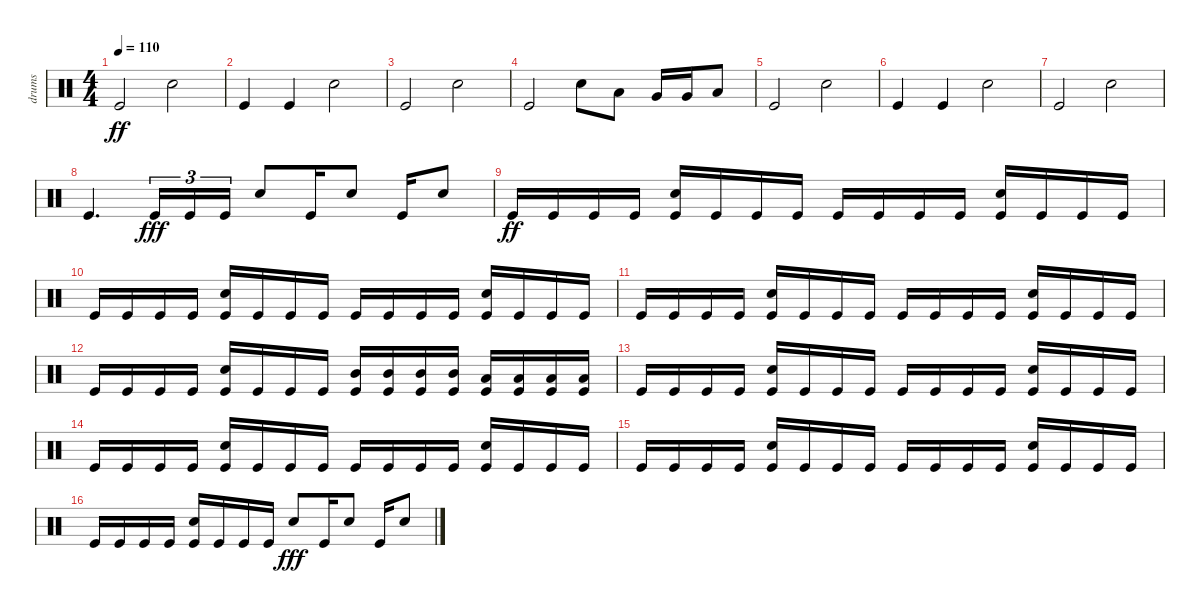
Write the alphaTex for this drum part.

\track ("drums" "drums") {instrument percussion}
\staff {score}
\articulation defaults
\ts (4 4)
\tempo 110
\clef neutral
\ks c "Kick (hit)".2{dy ff} "Electric Snare (hit)".2
|
"Kick (hit)".4 "Kick (hit)".4 "Electric Snare (hit)".2 |
"Kick (hit)".2 "Electric Snare (hit)".2 |
"Kick (hit)".2 "Electric Snare (hit)".8 "Low Tom (hit)".8 "Very Low Tom (hit)".16 "Very Low Tom (hit)".16 "Low Floor Tom (hit)".8 |
"Kick (hit)".2 "Electric Snare (hit)".2 |
"Kick (hit)".4 "Kick (hit)".4 "Electric Snare (hit)".2 |
"Kick (hit)".2 "Electric Snare (hit)".2 |
"Kick (hit)".4{d} "Kick (hit)".16{tu (3 2) dy fff} "Kick (hit)".16{tu (3 2)} "Kick (hit)".16{tu (3 2)} "Electric Snare (hit)".8 "Kick (hit)".16 "Electric Snare (hit)".8 "Kick (hit)".16 "Electric Snare (hit)".8 |
"Kick (hit)".16{dy ff} "Kick (hit)".16 "Kick (hit)".16 "Kick (hit)".16 ("Electric Snare (hit)" "Kick (hit)").16 "Kick (hit)".16 "Kick (hit)".16 "Kick (hit)".16 "Kick (hit)".16 "Kick (hit)".16 "Kick (hit)".16 "Kick (hit)".16 ("Electric Snare (hit)" "Kick (hit)").16 "Kick (hit)".16 "Kick (hit)".16 "Kick (hit)".16 |
"Kick (hit)".16 "Kick (hit)".16 "Kick (hit)".16 "Kick (hit)".16 ("Electric Snare (hit)" "Kick (hit)").16 "Kick (hit)".16 "Kick (hit)".16 "Kick (hit)".16 "Kick (hit)".16 "Kick (hit)".16 "Kick (hit)".16 "Kick (hit)".16 ("Electric Snare (hit)" "Kick (hit)").16 "Kick (hit)".16 "Kick (hit)".16 "Kick (hit)".16 |
"Kick (hit)".16 "Kick (hit)".16 "Kick (hit)".16 "Kick (hit)".16 ("Electric Snare (hit)" "Kick (hit)").16 "Kick (hit)".16 "Kick (hit)".16 "Kick (hit)".16 "Kick (hit)".16 "Kick (hit)".16 "Kick (hit)".16 "Kick (hit)".16 ("Electric Snare (hit)" "Kick (hit)").16 "Kick (hit)".16 "Kick (hit)".16 "Kick (hit)".16 |
"Kick (hit)".16 "Kick (hit)".16 "Kick (hit)".16 "Kick (hit)".16 ("Electric Snare (hit)" "Kick (hit)").16 "Kick (hit)".16 "Kick (hit)".16 "Kick (hit)".16 ("Mid Tom (hit)" "Kick (hit)").16 ("Mid Tom (hit)" "Kick (hit)").16 ("Mid Tom (hit)" "Kick (hit)").16 ("Mid Tom (hit)" "Kick (hit)").16 ("Low Tom (hit)" "Kick (hit)").16 ("Low Tom (hit)" "Kick (hit)").16 ("Low Tom (hit)" "Kick (hit)").16 ("Low Tom (hit)" "Kick (hit)").16 |
"Kick (hit)".16 "Kick (hit)".16 "Kick (hit)".16 "Kick (hit)".16 ("Electric Snare (hit)" "Kick (hit)").16 "Kick (hit)".16 "Kick (hit)".16 "Kick (hit)".16 "Kick (hit)".16 "Kick (hit)".16 "Kick (hit)".16 "Kick (hit)".16 ("Electric Snare (hit)" "Kick (hit)").16 "Kick (hit)".16 "Kick (hit)".16 "Kick (hit)".16 |
"Kick (hit)".16 "Kick (hit)".16 "Kick (hit)".16 "Kick (hit)".16 ("Electric Snare (hit)" "Kick (hit)").16 "Kick (hit)".16 "Kick (hit)".16 "Kick (hit)".16 "Kick (hit)".16 "Kick (hit)".16 "Kick (hit)".16 "Kick (hit)".16 ("Electric Snare (hit)" "Kick (hit)").16 "Kick (hit)".16 "Kick (hit)".16 "Kick (hit)".16 |
"Kick (hit)".16 "Kick (hit)".16 "Kick (hit)".16 "Kick (hit)".16 ("Electric Snare (hit)" "Kick (hit)").16 "Kick (hit)".16 "Kick (hit)".16 "Kick (hit)".16 "Kick (hit)".16 "Kick (hit)".16 "Kick (hit)".16 "Kick (hit)".16 ("Electric Snare (hit)" "Kick (hit)").16 "Kick (hit)".16 "Kick (hit)".16 "Kick (hit)".16 |
"Kick (hit)".16 "Kick (hit)".16 "Kick (hit)".16 "Kick (hit)".16 ("Electric Snare (hit)" "Kick (hit)").16 "Kick (hit)".16 "Kick (hit)".16 "Kick (hit)".16 "Electric Snare (hit)".8{dy fff} "Kick (hit)".16 "Electric Snare (hit)".8 "Kick (hit)".16 "Electric Snare (hit)".8
